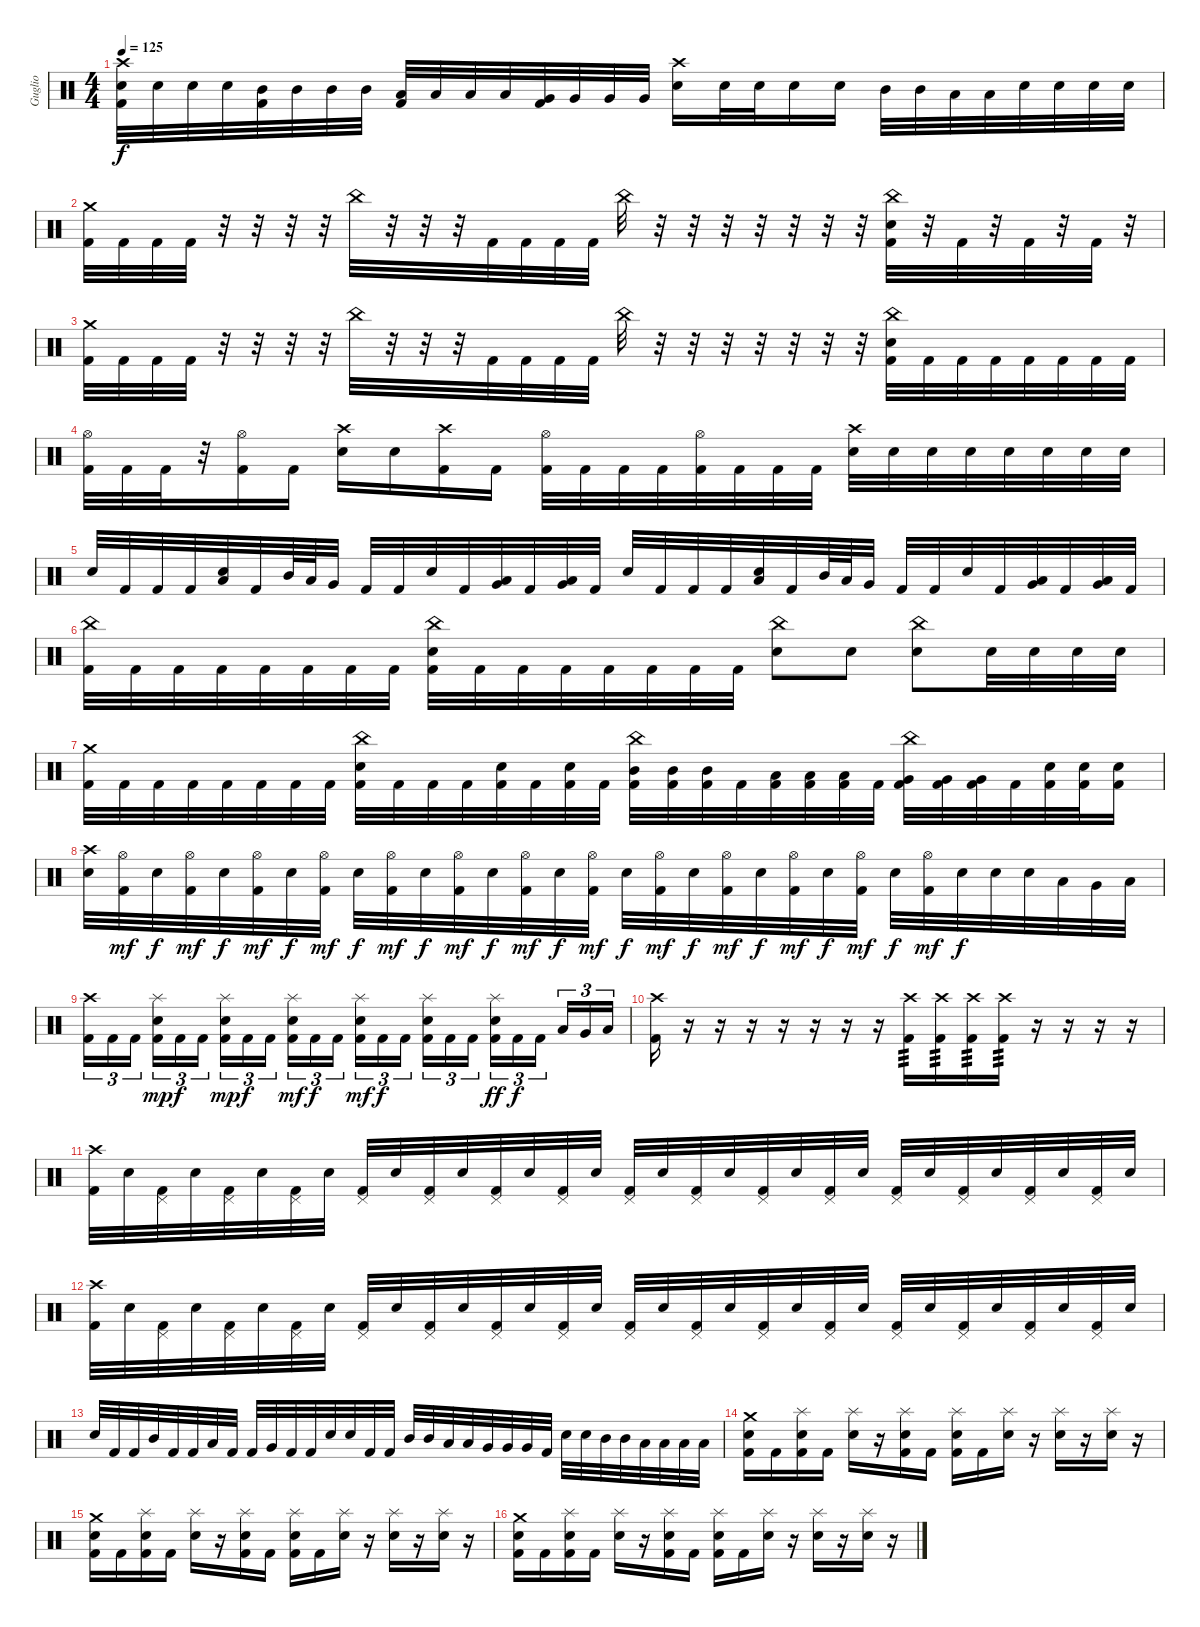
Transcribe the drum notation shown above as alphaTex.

\track ("Guglio" "Guglio") {instrument percussion}
\staff {score}
\articulation defaults
\ts (4 4)
\tempo 125
\clef neutral
\ks c
("Crash high (hit)" "Electric Snare (hit)" "Kick (hit) 2").32{dy f} "Electric Snare (hit)".32 "Electric Snare (hit)".32 "Electric Snare (hit)".32 ("Mid Tom (hit)" "Kick (hit) 2").32 "Mid Tom (hit)".32 "Mid Tom (hit)".32 "Mid Tom (hit)".32 ("Low Tom (hit)" "Kick (hit) 2").32 "Low Tom (hit)".32 "Low Tom (hit)".32 "Low Tom (hit)".32 ("Very Low Tom (hit)" "Kick (hit) 2").32 "Very Low Tom (hit)".32 "Very Low Tom (hit)".32 "Very Low Tom (hit)".32 ("Crash high (hit)" "Electric Snare (hit)").16 "Electric Snare (hit)".32 "Electric Snare (hit)".32 "Electric Snare (hit)".16 "Electric Snare (hit)".16 "Mid Tom (hit)".32 "Mid Tom (hit)".32 "Low Tom (hit)".32 "Low Tom (hit)".32 "Electric Snare (hit)".32 "Electric Snare (hit)".32 "Electric Snare (hit)".32 "Electric Snare (hit)".32 |
("Crash medium (hit)" "Kick (hit) 2").32 "Kick (hit) 2".32 "Kick (hit) 2".32 "Kick (hit) 2".32 r.32 r.32 r.32 r.32 "China (hit)".32 r.32 r.32 r.32 "Kick (hit) 2".32 "Kick (hit) 2".32 "Kick (hit) 2".32 "Kick (hit) 2".32 "China (hit)".32 r.32 r.32 r.32 r.32 r.32 r.32 r.32 ("China (hit)" "Electric Snare (hit)" "Kick (hit) 2").32 r.32 "Kick (hit) 2".32 r.32 "Kick (hit) 2".32 r.32 "Kick (hit) 2".32 r.32 |
("Crash medium (hit)" "Kick (hit) 2").32 "Kick (hit) 2".32 "Kick (hit) 2".32 "Kick (hit) 2".32 r.32 r.32 r.32 r.32 "China (hit)".32 r.32 r.32 r.32 "Kick (hit) 2".32 "Kick (hit) 2".32 "Kick (hit) 2".32 "Kick (hit) 2".32 "China (hit)".32 r.32 r.32 r.32 r.32 r.32 r.32 r.32 ("China (hit)" "Electric Snare (hit)" "Kick (hit) 2").32 "Kick (hit) 2".32 "Kick (hit) 2".32 "Kick (hit) 2".32 "Kick (hit) 2".32 "Kick (hit) 2".32 "Kick (hit) 2".32 "Kick (hit) 2".32 |
("Hi-Hat (open)" "Kick (hit) 2").32 "Kick (hit) 2".32 "Kick (hit) 2".32 r.32 ("Hi-Hat (open)" "Kick (hit) 2").16 "Kick (hit) 2".16 ("Crash high (hit)" "Electric Snare (hit)").16 "Electric Snare (hit)".16 ("Crash high (hit)" "Kick (hit) 2").16 "Kick (hit) 2".16 ("Hi-Hat (open)" "Kick (hit) 2").32 "Kick (hit) 2".32 "Kick (hit) 2".32 "Kick (hit) 2".32 ("Hi-Hat (open)" "Kick (hit) 2").32 "Kick (hit) 2".32 "Kick (hit) 2".32 "Kick (hit) 2".32 ("Crash high (hit)" "Electric Snare (hit)").32 "Electric Snare (hit)".32 "Electric Snare (hit)".32 "Electric Snare (hit)".32 "Electric Snare (hit)".32 "Electric Snare (hit)".32 "Electric Snare (hit)".32 "Electric Snare (hit)".32 |
"Electric Snare (hit)".32{bd 60} "Kick (hit) 2".32 "Kick (hit) 2".32 "Kick (hit) 2".32 ("Low Tom (hit)" "Electric Snare (hit)").32 "Kick (hit) 2".32 "Mid Tom (hit)".64 "Low Tom (hit)".64 "Very Low Tom (hit)".32 "Kick (hit) 2".32 "Kick (hit) 2".32 "Electric Snare (hit)".32 "Kick (hit) 2".32 ("Low Tom (hit)" "Very Low Tom (hit)").32 "Kick (hit) 2".32 ("Very Low Tom (hit)" "Low Floor Tom (hit)").32 "Kick (hit) 2".32 "Electric Snare (hit)".32 "Kick (hit) 2".32 "Kick (hit) 2".32 "Kick (hit) 2".32 ("Low Tom (hit)" "Electric Snare (hit)").32 "Kick (hit) 2".32 "Mid Tom (hit)".64 "Low Tom (hit)".64 "Very Low Tom (hit)".32 "Kick (hit) 2".32 "Kick (hit) 2".32 "Electric Snare (hit)".32 "Kick (hit) 2".32 ("Low Tom (hit)" "Very Low Tom (hit)").32 "Kick (hit) 2".32 ("Very Low Tom (hit)" "Low Floor Tom (hit)").32 "Kick (hit) 2".32 |
("China (hit)" "Kick (hit) 2").32 "Kick (hit) 2".32 "Kick (hit) 2".32 "Kick (hit) 2".32 "Kick (hit) 2".32 "Kick (hit) 2".32 "Kick (hit) 2".32 "Kick (hit) 2".32 ("China (hit)" "Electric Snare (hit)" "Kick (hit) 2").32 "Kick (hit) 2".32 "Kick (hit) 2".32 "Kick (hit) 2".32 "Kick (hit) 2".32 "Kick (hit) 2".32 "Kick (hit) 2".32 "Kick (hit) 2".32 ("China (hit)" "Electric Snare (hit)").8 "Electric Snare (hit)".8 ("China (hit)" "Electric Snare (hit)").8 "Electric Snare (hit)".32 "Electric Snare (hit)".32 "Electric Snare (hit)".32 "Electric Snare (hit)".32 |
("Crash medium (hit)" "Kick (hit) 2").32 "Kick (hit) 2".32 "Kick (hit) 2".32 "Kick (hit) 2".32 "Kick (hit) 2".32 "Kick (hit) 2".32 "Kick (hit) 2".32 "Kick (hit) 2".32 ("China (hit)" "Electric Snare (hit)" "Kick (hit) 2").32 "Kick (hit) 2".32 "Kick (hit) 2".32 "Kick (hit) 2".32 ("Electric Snare (hit)" "Kick (hit) 2").32 "Kick (hit) 2".32 ("Electric Snare (hit)" "Kick (hit) 2").32 "Kick (hit) 2".32 ("China (hit)" "Mid Tom (hit)" "Kick (hit) 2").32 ("Mid Tom (hit)" "Kick (hit) 2").32 ("Mid Tom (hit)" "Kick (hit) 2").32 "Kick (hit) 2".32 ("Low Tom (hit)" "Kick (hit) 2").32 ("Low Tom (hit)" "Kick (hit) 2").32 ("Low Tom (hit)" "Kick (hit) 2").32 "Kick (hit) 2".32 ("China (hit)" "Very Low Tom (hit)" "Kick (hit) 2").32 ("Very Low Tom (hit)" "Kick (hit) 2").32 ("Very Low Tom (hit)" "Kick (hit) 2").32 "Kick (hit) 2".32 ("Electric Snare (hit)" "Kick (hit) 2").32 ("Electric Snare (hit)" "Kick (hit) 2").32 ("Electric Snare (hit)" "Kick (hit) 2").16 |
("Crash high (hit)" "Electric Snare (hit)").32 ("Hi-Hat (open)" "Kick (hit) 2").32{dy mf} "Electric Snare (hit)".32{dy f} ("Hi-Hat (open)" "Kick (hit) 2").32{dy mf} "Electric Snare (hit)".32{dy f} ("Hi-Hat (open)" "Kick (hit) 2").32{dy mf} "Electric Snare (hit)".32{dy f} ("Hi-Hat (open)" "Kick (hit) 2").32{dy mf} "Electric Snare (hit)".32{dy f} ("Hi-Hat (open)" "Kick (hit) 2").32{dy mf} "Electric Snare (hit)".32{dy f} ("Hi-Hat (open)" "Kick (hit) 2").32{dy mf} "Electric Snare (hit)".32{dy f} ("Hi-Hat (open)" "Kick (hit) 2").32{dy mf} "Electric Snare (hit)".32{dy f} ("Hi-Hat (open)" "Kick (hit) 2").32{dy mf} "Electric Snare (hit)".32{dy f} ("Hi-Hat (open)" "Kick (hit) 2").32{dy mf} "Electric Snare (hit)".32{dy f} ("Hi-Hat (open)" "Kick (hit) 2").32{dy mf} "Electric Snare (hit)".32{dy f} ("Hi-Hat (open)" "Kick (hit) 2").32{dy mf} "Electric Snare (hit)".32{dy f} ("Hi-Hat (open)" "Kick (hit) 2").32{dy mf} "Electric Snare (hit)".32{dy f} ("Hi-Hat (open)" "Kick (hit) 2").32{dy mf} "Electric Snare (hit)".32{dy f} "Electric Snare (hit)".32 "Electric Snare (hit)".32 "Low Tom (hit)".32 "Very Low Tom (hit)".32 "Low Floor Tom (hit)".32 |
("Crash high (hit)" "Kick (hit) 2").16{tu (3 2)} "Kick (hit) 2".16{tu (3 2)} "Kick (hit) 2".16{tu (3 2) beam splitsecondary} ("Splash (hit)" "Electric Snare (hit)" "Kick (hit) 2").16{tu (3 2) dy mp} "Kick (hit) 2".16{tu (3 2) dy f} "Kick (hit) 2".16{tu (3 2)} ("Splash (hit)" "Electric Snare (hit)" "Kick (hit) 2").16{tu (3 2) dy mp} "Kick (hit) 2".16{tu (3 2) dy f} "Kick (hit) 2".16{tu (3 2) beam splitsecondary} ("Splash (hit)" "Electric Snare (hit)" "Kick (hit) 2").16{tu (3 2) dy mf} "Kick (hit) 2".16{tu (3 2) dy f} "Kick (hit) 2".16{tu (3 2)} ("Splash (hit)" "Electric Snare (hit)" "Kick (hit) 2").16{tu (3 2) dy mf} "Kick (hit) 2".16{tu (3 2) dy f} "Kick (hit) 2".16{tu (3 2) beam splitsecondary} ("Splash (hit)" "Electric Snare (hit)" "Kick (hit) 2").16{tu (3 2)} "Kick (hit) 2".16{tu (3 2)} "Kick (hit) 2".16{tu (3 2)} ("Splash (hit)" "Electric Snare (hit)" "Kick (hit) 2").16{tu (3 2) dy ff} "Kick (hit) 2".16{tu (3 2) dy f} "Kick (hit) 2".16{tu (3 2) beam splitsecondary} "Low Tom (hit)".16{tu (3 2)} "Very Low Tom (hit)".16{tu (3 2)} "Low Floor Tom (hit)".16{tu (3 2)} |
("Crash high (hit)" "Kick (hit) 2").16 r.16 r.16 r.16 r.16 r.16 r.16 r.16 ("Crash high (hit)" "Kick (hit) 2").16{tp 3} ("Crash high (hit)" "Kick (hit) 2").16{tp 3} ("Crash high (hit)" "Kick (hit) 2").16{tp 3} ("Crash high (hit)" "Kick (hit) 2").16{tp 3} r.16 r.16 r.16 r.16 |
("Crash high (hit)" "Kick (hit) 2").32 "Electric Snare (hit)".32 ("Pedal Hi-Hat (hit)" "Kick (hit) 2").32 "Electric Snare (hit)".32 ("Pedal Hi-Hat (hit)" "Kick (hit) 2").32 "Electric Snare (hit)".32 ("Pedal Hi-Hat (hit)" "Kick (hit) 2").32 "Electric Snare (hit)".32 ("Pedal Hi-Hat (hit)" "Kick (hit) 2").32 "Electric Snare (hit)".32 ("Pedal Hi-Hat (hit)" "Kick (hit) 2").32 "Electric Snare (hit)".32 ("Pedal Hi-Hat (hit)" "Kick (hit) 2").32 "Electric Snare (hit)".32 ("Pedal Hi-Hat (hit)" "Kick (hit) 2").32 "Electric Snare (hit)".32 ("Pedal Hi-Hat (hit)" "Kick (hit) 2").32 "Electric Snare (hit)".32 ("Pedal Hi-Hat (hit)" "Kick (hit) 2").32 "Electric Snare (hit)".32 ("Pedal Hi-Hat (hit)" "Kick (hit) 2").32 "Electric Snare (hit)".32 ("Pedal Hi-Hat (hit)" "Kick (hit) 2").32 "Electric Snare (hit)".32 ("Pedal Hi-Hat (hit)" "Kick (hit) 2").32 "Electric Snare (hit)".32 ("Pedal Hi-Hat (hit)" "Kick (hit) 2").32 "Electric Snare (hit)".32 ("Pedal Hi-Hat (hit)" "Kick (hit) 2").32 "Electric Snare (hit)".32 ("Pedal Hi-Hat (hit)" "Kick (hit) 2").32 "Electric Snare (hit)".32 |
("Crash high (hit)" "Kick (hit) 2").32 "Electric Snare (hit)".32 ("Pedal Hi-Hat (hit)" "Kick (hit) 2").32 "Electric Snare (hit)".32 ("Pedal Hi-Hat (hit)" "Kick (hit) 2").32 "Electric Snare (hit)".32 ("Pedal Hi-Hat (hit)" "Kick (hit) 2").32 "Electric Snare (hit)".32 ("Pedal Hi-Hat (hit)" "Kick (hit) 2").32 "Electric Snare (hit)".32 ("Pedal Hi-Hat (hit)" "Kick (hit) 2").32 "Electric Snare (hit)".32 ("Pedal Hi-Hat (hit)" "Kick (hit) 2").32 "Electric Snare (hit)".32 ("Pedal Hi-Hat (hit)" "Kick (hit) 2").32 "Electric Snare (hit)".32 ("Pedal Hi-Hat (hit)" "Kick (hit) 2").32 "Electric Snare (hit)".32 ("Pedal Hi-Hat (hit)" "Kick (hit) 2").32 "Electric Snare (hit)".32 ("Pedal Hi-Hat (hit)" "Kick (hit) 2").32 "Electric Snare (hit)".32 ("Pedal Hi-Hat (hit)" "Kick (hit) 2").32 "Electric Snare (hit)".32 ("Pedal Hi-Hat (hit)" "Kick (hit) 2").32 "Electric Snare (hit)".32 ("Pedal Hi-Hat (hit)" "Kick (hit) 2").32 "Electric Snare (hit)".32 ("Pedal Hi-Hat (hit)" "Kick (hit) 2").32 "Electric Snare (hit)".32 ("Pedal Hi-Hat (hit)" "Kick (hit) 2").32 "Electric Snare (hit)".32 |
"Electric Snare (hit)".32 "Kick (hit) 2".32 "Kick (hit) 2".32 "Mid Tom (hit)".32 "Kick (hit) 2".32 "Kick (hit) 2".32 "Low Tom (hit)".32 "Kick (hit) 2".32 "Kick (hit) 2".32 "Very Low Tom (hit)".32 "Kick (hit) 2".32 "Kick (hit) 2".32 "Electric Snare (hit)".32 "Electric Snare (hit)".32 "Kick (hit) 2".32 "Kick (hit) 2".32 "Mid Tom (hit)".32 "Mid Tom (hit)".32 "Low Tom (hit)".32 "Low Tom (hit)".32 "Very Low Tom (hit)".32 "Very Low Tom (hit)".32 "Very Low Tom (hit)".32 "Kick (hit) 2".32 "Electric Snare (hit)".32 "Electric Snare (hit)".32 "Mid Tom (hit)".32 "Mid Tom (hit)".32 "Low Tom (hit)".32 "Low Tom (hit)".32 "Low Tom (hit)".32 "Low Tom (hit)".32 |
("Crash medium (hit)" "Electric Snare (hit)" "Kick (hit) 2").16 "Kick (hit) 2".16 ("Splash (hit)" "Electric Snare (hit)" "Kick (hit) 2").16 "Kick (hit) 2".16 ("Splash (hit)" "Electric Snare (hit)").16 r.16 ("Splash (hit)" "Electric Snare (hit)" "Kick (hit) 2").16 "Kick (hit) 2".16 ("Splash (hit)" "Electric Snare (hit)" "Kick (hit) 2").16 "Kick (hit) 2".16 ("Splash (hit)" "Electric Snare (hit)").16 r.16 ("Splash (hit)" "Electric Snare (hit)").16 r.16 ("Splash (hit)" "Electric Snare (hit)").16 r.16 |
("Crash medium (hit)" "Electric Snare (hit)" "Kick (hit) 2").16 "Kick (hit) 2".16 ("Splash (hit)" "Electric Snare (hit)" "Kick (hit) 2").16 "Kick (hit) 2".16 ("Splash (hit)" "Electric Snare (hit)").16 r.16 ("Splash (hit)" "Electric Snare (hit)" "Kick (hit) 2").16 "Kick (hit) 2".16 ("Splash (hit)" "Electric Snare (hit)" "Kick (hit) 2").16 "Kick (hit) 2".16 ("Splash (hit)" "Electric Snare (hit)").16 r.16 ("Splash (hit)" "Electric Snare (hit)").16 r.16 ("Splash (hit)" "Electric Snare (hit)").16 r.16 |
("Crash medium (hit)" "Electric Snare (hit)" "Kick (hit) 2").16 "Kick (hit) 2".16 ("Splash (hit)" "Electric Snare (hit)" "Kick (hit) 2").16 "Kick (hit) 2".16 ("Splash (hit)" "Electric Snare (hit)").16 r.16 ("Splash (hit)" "Electric Snare (hit)" "Kick (hit) 2").16 "Kick (hit) 2".16 ("Splash (hit)" "Electric Snare (hit)" "Kick (hit) 2").16 "Kick (hit) 2".16 ("Splash (hit)" "Electric Snare (hit)").16 r.16 ("Splash (hit)" "Electric Snare (hit)").16 r.16 ("Splash (hit)" "Electric Snare (hit)").16 r.16
